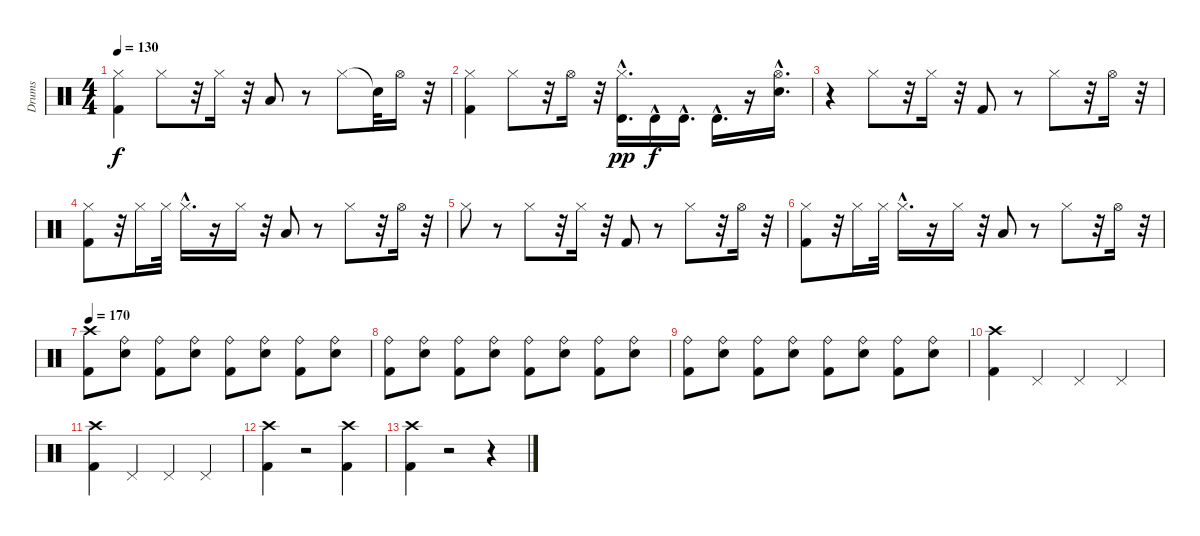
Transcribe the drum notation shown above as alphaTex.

\track ("Drums" "Drums") {instrument percussion}
\staff {score}
\articulation defaults
\ts (4 4)
\tempo 130
\clef neutral
\ks c
("Kick (hit) 2" "Hi-Hat (closed)").4{dy f} "Hi-Hat (closed)".8 r.32 "Hi-Hat (closed)".16 r.32 "Low Tom (hit)".8 r.8 "Hi-Hat (closed)".8 "Snare (hit)"{t}.32 "Hi-Hat (open)".16 r.32 |
("Hi-Hat (closed)" "Kick (hit) 2").4 "Hi-Hat (closed)".8 r.32 "Hi-Hat (open)".16 r.32 ("Hi-Hat (closed)" "Timbale high (hit)"{hac}).16{d dy pp} "Timbale high (hit)"{hac}.16{dy f} "Timbale high (hit)"{hac}.16{d} "Timbale high (hit)"{hac}.16{d} r.16 ("Electric Snare (hit)"{hac} "Hi-Hat (open)"{hac}).16{d} |
r.4 "Hi-Hat (closed)".8 r.32 "Hi-Hat (closed)".16 r.32 "Kick (hit) 2".8 r.8 "Hi-Hat (closed)".8 r.32 "Hi-Hat (open)".16 r.32 |
("Hi-Hat (closed)" "Kick (hit) 2").8 r.32 "Hi-Hat (closed)".16 "Hi-Hat (closed)".32 "Hi-Hat (closed)"{hac}.16{d} r.16 "Hi-Hat (closed)".16 r.32 "Low Tom (hit)".8 r.8 "Hi-Hat (closed)".8 r.32 "Hi-Hat (open)".16 r.32 |
"Hi-Hat (closed)".8 r.8 "Hi-Hat (closed)".8 r.32 "Hi-Hat (closed)".16 r.32 "Kick (hit) 2".8 r.8 "Hi-Hat (closed)".8 r.32 "Hi-Hat (open)".16 r.32 |
("Kick (hit) 2" "Hi-Hat (closed)").8 r.32 "Hi-Hat (closed)".16 "Hi-Hat (closed)".32 "Hi-Hat (closed)"{hac}.16{d} r.16 "Hi-Hat (closed)".16 r.32 "Low Tom (hit)".8 r.8 "Hi-Hat (closed)".8 r.32 "Hi-Hat (open)".16 r.32 |
\tempo 170
("Kick (hit) 2" "Crash high (hit)").8 ("Electric Snare (hit)" "Ride (bell)").8 ("Kick (hit) 2" "Ride (bell)").8 ("Electric Snare (hit)" "Ride (bell)").8 ("Kick (hit) 2" "Ride (bell)").8 ("Electric Snare (hit)" "Ride (bell)").8 ("Kick (hit) 2" "Ride (bell)").8 ("Electric Snare (hit)" "Ride (bell)").8 |
("Kick (hit) 2" "Ride (bell)").8 ("Electric Snare (hit)" "Ride (bell)").8 ("Kick (hit) 2" "Ride (bell)").8 ("Electric Snare (hit)" "Ride (bell)").8 ("Kick (hit) 2" "Ride (bell)").8 ("Electric Snare (hit)" "Ride (bell)").8 ("Kick (hit) 2" "Ride (bell)").8 ("Electric Snare (hit)" "Ride (bell)").8 |
("Kick (hit) 2" "Ride (bell)").8 ("Electric Snare (hit)" "Ride (bell)").8 ("Kick (hit) 2" "Ride (bell)").8 ("Electric Snare (hit)" "Ride (bell)").8 ("Kick (hit) 2" "Ride (bell)").8 ("Electric Snare (hit)" "Ride (bell)").8 ("Kick (hit) 2" "Ride (bell)").8 ("Electric Snare (hit)" "Ride (bell)").8 |
("Kick (hit) 2" "Crash high (hit)").4 "Pedal Hi-Hat (hit)".4 "Pedal Hi-Hat (hit)".4 "Pedal Hi-Hat (hit)".4 |
("Crash high (hit)" "Kick (hit) 2").4 "Pedal Hi-Hat (hit)".4 "Pedal Hi-Hat (hit)".4 "Pedal Hi-Hat (hit)".4 |
("Crash high (hit)" "Kick (hit) 2").4 r.2 ("Kick (hit) 2" "Crash high (hit)").4 |
("Crash high (hit)" "Kick (hit) 2").4 r.2 r.4
